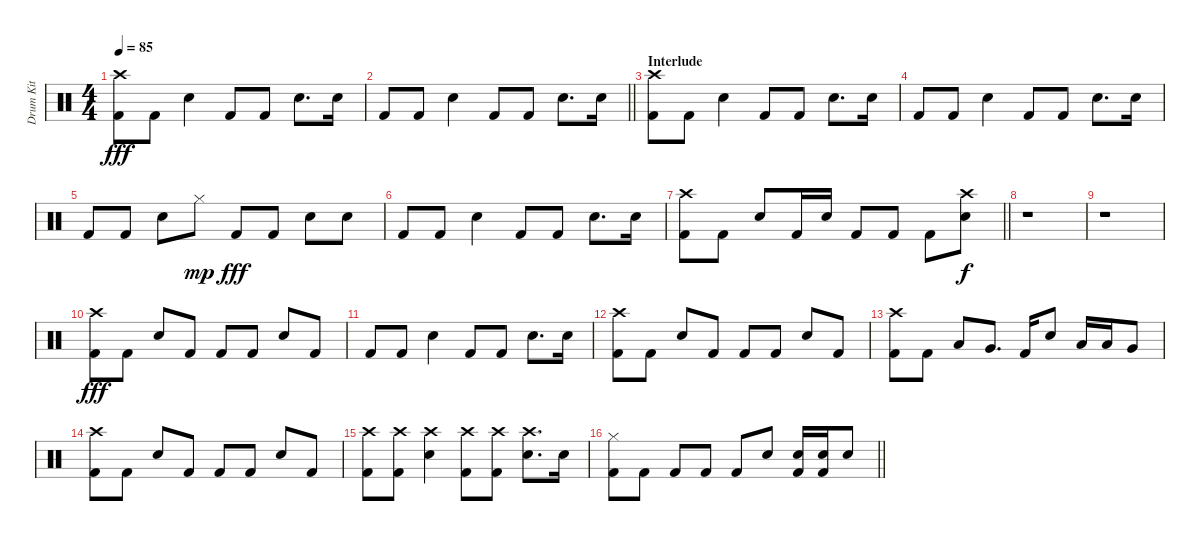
\track ("Drum Kit" "Drum Kit") {instrument percussion}
\staff {score}
\articulation defaults
\ts (4 4)
\tempo 85
\clef neutral
\ks c
("Crash high (hit)" "Kick (hit) 2").8{dy fff} "Kick (hit) 2".8 "Snare (hit) 2".4 "Kick (hit) 2".8 "Kick (hit) 2".8 "Snare (hit) 2".8{d} "Snare (hit) 2".16 |
\barLineRight lightlight "Kick (hit) 2".8 "Kick (hit) 2".8 "Snare (hit) 2".4 "Kick (hit) 2".8 "Kick (hit) 2".8 "Snare (hit) 2".8{d} "Snare (hit) 2".16
|
\section ("" "Interlude")
("Crash high (hit)" "Kick (hit) 2").8 "Kick (hit) 2".8 "Snare (hit) 2".4 "Kick (hit) 2".8 "Kick (hit) 2".8 "Snare (hit) 2".8{d} "Snare (hit) 2".16 |
"Kick (hit) 2".8 "Kick (hit) 2".8 "Snare (hit) 2".4 "Kick (hit) 2".8 "Kick (hit) 2".8 "Snare (hit) 2".8{d} "Snare (hit) 2".16 |
"Kick (hit) 2".8 "Kick (hit) 2".8 "Snare (hit) 2".8 "Hi-Hat (closed)".8{dy mp} "Kick (hit) 2".8{dy fff} "Kick (hit) 2".8 "Snare (hit) 2".8 "Snare (hit) 2".8 |
"Kick (hit) 2".8 "Kick (hit) 2".8 "Snare (hit) 2".4 "Kick (hit) 2".8 "Kick (hit) 2".8 "Snare (hit) 2".8{d} "Snare (hit) 2".16 |
\barLineRight lightlight
("Crash high (hit)" "Kick (hit) 2").8 "Kick (hit) 2".8 "Snare (hit) 2".8 "Kick (hit) 2".16 "Snare (hit) 2".16 "Kick (hit) 2".8 "Kick (hit) 2".8 "Kick (hit) 2".8 ("Crash high (hit)" "Snare (hit) 2").8{dy f} |
r.1 |
r.1 |
("Crash high (hit)" "Kick (hit) 2").8{dy fff} "Kick (hit) 2".8 "Snare (hit) 2".8 "Kick (hit) 2".8 "Kick (hit) 2".8 "Kick (hit) 2".8 "Snare (hit) 2".8 "Kick (hit) 2".8 |
"Kick (hit) 2".8 "Kick (hit) 2".8 "Snare (hit) 2".4 "Kick (hit) 2".8 "Kick (hit) 2".8 "Snare (hit) 2".8{d} "Snare (hit) 2".16 |
("Crash high (hit)" "Kick (hit) 2").8 "Kick (hit) 2".8 "Snare (hit) 2".8 "Kick (hit) 2".8 "Kick (hit) 2".8 "Kick (hit) 2".8 "Snare (hit) 2".8 "Kick (hit) 2".8 |
("Crash high (hit)" "Kick (hit) 2").8 "Kick (hit) 2".8 "Low Tom (hit)".8 "Very Low Tom (hit)".8{d} "Kick (hit) 2".16 "Snare (hit) 2".8 "Low Tom (hit)".16 "Low Tom (hit)".16 "Very Low Tom (hit)".8 |
("Crash high (hit)" "Kick (hit) 2").8 "Kick (hit) 2".8 "Snare (hit) 2".8 "Kick (hit) 2".8 "Kick (hit) 2".8 "Kick (hit) 2".8 "Snare (hit) 2".8 "Kick (hit) 2".8 |
("Crash high (hit)" "Kick (hit) 2").8 ("Crash high (hit)" "Kick (hit) 2").8 ("Crash high (hit)" "Snare (hit) 2").4 ("Crash high (hit)" "Kick (hit) 2").8 ("Crash high (hit)" "Kick (hit) 2").8 ("Crash high (hit)" "Snare (hit) 2").8{d} "Snare (hit) 2".16 |
\barLineRight lightlight
("Hi-Hat (closed)" "Kick (hit) 2").8 "Kick (hit) 2".8 "Kick (hit) 2".8 "Kick (hit) 2".8 "Kick (hit) 2".8 "Snare (hit) 2".8 ("Snare (hit) 2" "Kick (hit) 2").16 ("Snare (hit) 2" "Kick (hit) 2").16 "Snare (hit) 2".8
